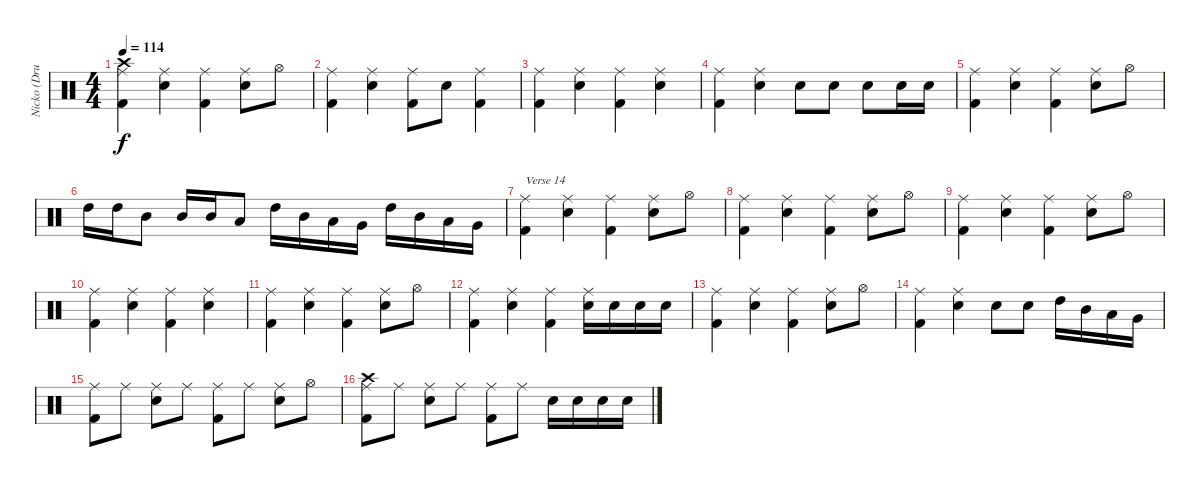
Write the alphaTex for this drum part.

\track ("Nicko (Drums)" "Nicko (Dru") {instrument percussion}
\staff {score}
\articulation defaults
\ts (4 4)
\tempo 114
\clef neutral
\ks c
("Ride (middle)" "Kick (hit) 2" "Crash high (hit)").4{dy f} ("Ride (middle)" "Snare (hit) 2").4 ("Ride (middle)" "Kick (hit) 2").4 ("Ride (middle)" "Snare (hit) 2").8 "Hi-Hat (open)".8 |
("Ride (middle)" "Kick (hit) 2").4 ("Ride (middle)" "Snare (hit) 2").4 ("Ride (middle)" "Kick (hit) 2").8 "Snare (hit) 2".8 ("Ride (middle)" "Kick (hit) 2").4 |
("Ride (middle)" "Kick (hit) 2").4 ("Ride (middle)" "Snare (hit) 2").4 ("Ride (middle)" "Kick (hit) 2").4 ("Ride (middle)" "Snare (hit) 2").4 |
("Ride (middle)" "Kick (hit) 2").4 ("Ride (middle)" "Snare (hit) 2").4 "Snare (hit) 2".8 "Snare (hit) 2".8 "Snare (hit) 2".8 "Snare (hit) 2".16 "Snare (hit) 2".16 |
("Ride (middle)" "Kick (hit) 2").4 ("Ride (middle)" "Snare (hit) 2").4 ("Ride (middle)" "Kick (hit) 2").4 ("Ride (middle)" "Snare (hit) 2").8 "Hi-Hat (open)".8 |
"High Tom (hit)".16 "High Tom (hit)".16 "Mid Tom (hit)".8 "Mid Tom (hit)".16 "Mid Tom (hit)".16 "Low Tom (hit)".8 "High Tom (hit)".16 "Mid Tom (hit)".16 "Low Tom (hit)".16 "Very Low Tom (hit)".16 "High Tom (hit)".16 "Mid Tom (hit)".16 "Low Tom (hit)".16 "Very Low Tom (hit)".16 |
("Ride (middle)" "Kick (hit) 2").4{txt "Verse 14"} ("Ride (middle)" "Snare (hit) 2").4 ("Ride (middle)" "Kick (hit) 2").4 ("Ride (middle)" "Snare (hit) 2").8 "Hi-Hat (open)".8 |
("Ride (middle)" "Kick (hit) 2").4 ("Ride (middle)" "Snare (hit) 2").4 ("Ride (middle)" "Kick (hit) 2").4 ("Ride (middle)" "Snare (hit) 2").8 "Hi-Hat (open)".8 |
("Ride (middle)" "Kick (hit) 2").4 ("Ride (middle)" "Snare (hit) 2").4 ("Ride (middle)" "Kick (hit) 2").4 ("Ride (middle)" "Snare (hit) 2").8 "Hi-Hat (open)".8 |
("Ride (middle)" "Kick (hit) 2").4 ("Ride (middle)" "Snare (hit) 2").4 ("Ride (middle)" "Kick (hit) 2").4 ("Ride (middle)" "Snare (hit) 2").4 |
("Ride (middle)" "Kick (hit) 2").4 ("Ride (middle)" "Snare (hit) 2").4 ("Ride (middle)" "Kick (hit) 2").4 ("Ride (middle)" "Snare (hit) 2").8 "Hi-Hat (open)".8 |
("Ride (middle)" "Kick (hit) 2").4 ("Ride (middle)" "Snare (hit) 2").4 ("Ride (middle)" "Kick (hit) 2").4 ("Ride (middle)" "Snare (hit) 2").16 "Snare (hit) 2".16 "Snare (hit) 2".16 "Snare (hit) 2".16 |
("Ride (middle)" "Kick (hit) 2").4 ("Ride (middle)" "Snare (hit) 2").4 ("Ride (middle)" "Kick (hit) 2").4 ("Ride (middle)" "Snare (hit) 2").8 "Hi-Hat (open)".8 |
("Ride (middle)" "Kick (hit) 2").4 ("Ride (middle)" "Snare (hit) 2").4 "Snare (hit) 2".8 "Snare (hit) 2".8 "High Tom (hit)".16 "Mid Tom (hit)".16 "Low Tom (hit)".16 "Very Low Tom (hit)".16 |
("Ride (middle)" "Kick (hit) 2").8 "Ride (middle)".8 ("Ride (middle)" "Snare (hit) 2").8 "Ride (middle)".8 ("Ride (middle)" "Kick (hit) 2").8 "Ride (middle)".8 ("Ride (middle)" "Snare (hit) 2").8 "Hi-Hat (open)".8 |
("Ride (middle)" "Kick (hit) 2" "Crash high (hit)").8 "Ride (middle)".8 ("Ride (middle)" "Snare (hit) 2").8 "Ride (middle)".8 ("Ride (middle)" "Kick (hit) 2").8 "Ride (middle)".8 "Snare (hit) 2".16 "Snare (hit) 2".16 "Snare (hit) 2".16 "Snare (hit) 2".16
